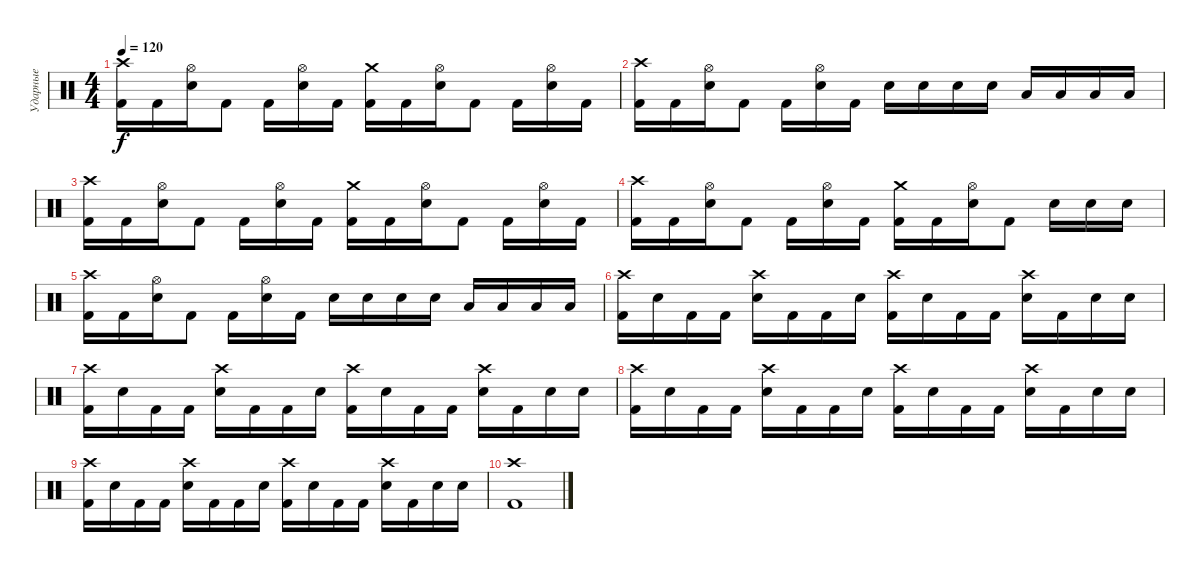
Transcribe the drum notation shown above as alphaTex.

\track ("Ударные" "Ударные") {instrument percussion}
\staff {score}
\articulation defaults
\ts (4 4)
\tempo 120
\clef neutral
\ks c
("Kick (hit) 2" "Crash high (hit)").16{dy f} "Kick (hit) 2".16 ("Electric Snare (hit)" "Hi-Hat (open)").16 "Kick (hit) 2".8 "Kick (hit) 2".16 ("Electric Snare (hit)" "Hi-Hat (open)").16 "Kick (hit) 2".16 ("Kick (hit) 2" "Crash medium (hit)").16 "Kick (hit) 2".16 ("Electric Snare (hit)" "Hi-Hat (open)").16 "Kick (hit) 2".8 "Kick (hit) 2".16 ("Electric Snare (hit)" "Hi-Hat (open)").16 "Kick (hit) 2".16 |
("Kick (hit) 2" "Crash high (hit)").16 "Kick (hit) 2".16 ("Electric Snare (hit)" "Hi-Hat (open)").16 "Kick (hit) 2".8 "Kick (hit) 2".16 ("Electric Snare (hit)" "Hi-Hat (open)").16 "Kick (hit) 2".16 "Electric Snare (hit)".16 "Electric Snare (hit)".16 "Electric Snare (hit)".16 "Electric Snare (hit)".16 "Low Tom (hit)".16 "Low Tom (hit)".16 "Low Tom (hit)".16 "Low Tom (hit)".16 |
("Kick (hit) 2" "Crash high (hit)").16 "Kick (hit) 2".16 ("Electric Snare (hit)" "Hi-Hat (open)").16 "Kick (hit) 2".8 "Kick (hit) 2".16 ("Electric Snare (hit)" "Hi-Hat (open)").16 "Kick (hit) 2".16 ("Kick (hit) 2" "Crash medium (hit)").16 "Kick (hit) 2".16 ("Electric Snare (hit)" "Hi-Hat (open)").16 "Kick (hit) 2".8 "Kick (hit) 2".16 ("Electric Snare (hit)" "Hi-Hat (open)").16 "Kick (hit) 2".16 |
("Kick (hit) 2" "Crash high (hit)").16 "Kick (hit) 2".16 ("Electric Snare (hit)" "Hi-Hat (open)").16 "Kick (hit) 2".8 "Kick (hit) 2".16 ("Electric Snare (hit)" "Hi-Hat (open)").16 "Kick (hit) 2".16 ("Kick (hit) 2" "Crash medium (hit)").16 "Kick (hit) 2".16 ("Electric Snare (hit)" "Hi-Hat (open)").16 "Kick (hit) 2".8 "Electric Snare (hit)".16 "Electric Snare (hit)".16 "Electric Snare (hit)".16 |
("Kick (hit) 2" "Crash high (hit)").16 "Kick (hit) 2".16 ("Electric Snare (hit)" "Hi-Hat (open)").16 "Kick (hit) 2".8 "Kick (hit) 2".16 ("Electric Snare (hit)" "Hi-Hat (open)").16 "Kick (hit) 2".16 "Electric Snare (hit)".16 "Electric Snare (hit)".16 "Electric Snare (hit)".16 "Electric Snare (hit)".16 "Low Tom (hit)".16 "Low Tom (hit)".16 "Low Tom (hit)".16 "Low Tom (hit)".16 |
("Kick (hit) 2" "Crash high (hit)").16 "Electric Snare (hit)".16 "Kick (hit) 2".16 "Kick (hit) 2".16 ("Electric Snare (hit)" "Crash high (hit)").16 "Kick (hit) 2".16 "Kick (hit) 2".16 "Electric Snare (hit)".16 ("Kick (hit) 2" "Crash high (hit)").16 "Electric Snare (hit)".16 "Kick (hit) 2".16 "Kick (hit) 2".16 ("Electric Snare (hit)" "Crash high (hit)").16 "Kick (hit) 2".16 "Electric Snare (hit)".16 "Electric Snare (hit)".16 |
("Kick (hit) 2" "Crash high (hit)").16 "Electric Snare (hit)".16 "Kick (hit) 2".16 "Kick (hit) 2".16 ("Electric Snare (hit)" "Crash high (hit)").16 "Kick (hit) 2".16 "Kick (hit) 2".16 "Electric Snare (hit)".16 ("Kick (hit) 2" "Crash high (hit)").16 "Electric Snare (hit)".16 "Kick (hit) 2".16 "Kick (hit) 2".16 ("Electric Snare (hit)" "Crash high (hit)").16 "Kick (hit) 2".16 "Electric Snare (hit)".16 "Electric Snare (hit)".16 |
("Kick (hit) 2" "Crash high (hit)").16 "Electric Snare (hit)".16 "Kick (hit) 2".16 "Kick (hit) 2".16 ("Electric Snare (hit)" "Crash high (hit)").16 "Kick (hit) 2".16 "Kick (hit) 2".16 "Electric Snare (hit)".16 ("Kick (hit) 2" "Crash high (hit)").16 "Electric Snare (hit)".16 "Kick (hit) 2".16 "Kick (hit) 2".16 ("Electric Snare (hit)" "Crash high (hit)").16 "Kick (hit) 2".16 "Electric Snare (hit)".16 "Electric Snare (hit)".16 |
("Kick (hit) 2" "Crash high (hit)").16 "Electric Snare (hit)".16 "Kick (hit) 2".16 "Kick (hit) 2".16 ("Electric Snare (hit)" "Crash high (hit)").16 "Kick (hit) 2".16 "Kick (hit) 2".16 "Electric Snare (hit)".16 ("Kick (hit) 2" "Crash high (hit)").16 "Electric Snare (hit)".16 "Kick (hit) 2".16 "Kick (hit) 2".16 ("Electric Snare (hit)" "Crash high (hit)").16 "Kick (hit) 2".16 "Electric Snare (hit)".16 "Electric Snare (hit)".16 |
("Crash high (hit)" "Kick (hit) 2").1
